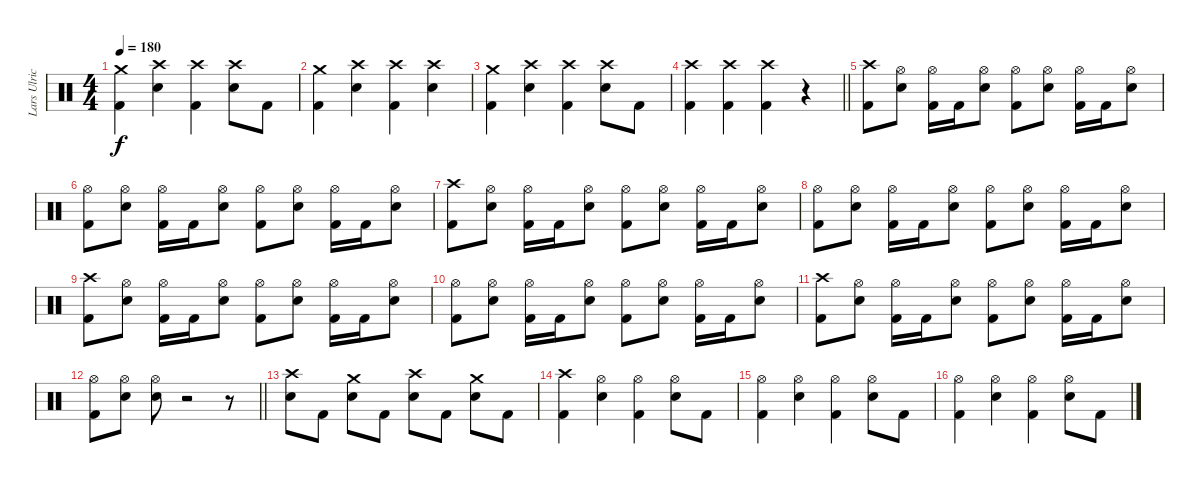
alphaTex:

\track ("Lars Ulrich" "Lars Ulric") {instrument percussion}
\staff {score}
\articulation defaults
\ts (4 4)
\tempo 180
\clef neutral
\ks c
("Crash medium (hit)" "Kick (hit) 2").4{dy f} ("Crash high (hit)" "Electric Snare (hit)").4 ("Crash high (hit)" "Kick (hit) 2").4 ("Crash high (hit)" "Electric Snare (hit)").8 "Kick (hit) 2".8 |
("Crash medium (hit)" "Kick (hit) 2").4 ("Crash high (hit)" "Electric Snare (hit)").4 ("Crash high (hit)" "Kick (hit) 2").4 ("Crash high (hit)" "Electric Snare (hit)").4 |
("Crash medium (hit)" "Kick (hit) 2").4 ("Crash high (hit)" "Electric Snare (hit)").4 ("Crash high (hit)" "Kick (hit) 2").4 ("Crash high (hit)" "Electric Snare (hit)").8 "Kick (hit) 2".8 |
\barLineRight lightlight
("Crash high (hit)" "Kick (hit) 2").4 ("Crash high (hit)" "Kick (hit) 2").4 ("Crash high (hit)" "Kick (hit) 2").4 r.4 |
\section ("" "")
("Crash high (hit)" "Kick (hit) 2").8 ("Hi-Hat (open)" "Electric Snare (hit)").8 ("Hi-Hat (open)" "Kick (hit) 2").16 "Kick (hit) 2".16 ("Hi-Hat (open)" "Electric Snare (hit)").8 ("Hi-Hat (open)" "Kick (hit) 2").8 ("Hi-Hat (open)" "Electric Snare (hit)").8 ("Hi-Hat (open)" "Kick (hit) 2").16 "Kick (hit) 2".16 ("Hi-Hat (open)" "Electric Snare (hit)").8 |
("Hi-Hat (open)" "Kick (hit) 2").8 ("Hi-Hat (open)" "Electric Snare (hit)").8 ("Hi-Hat (open)" "Kick (hit) 2").16 "Kick (hit) 2".16 ("Hi-Hat (open)" "Electric Snare (hit)").8 ("Hi-Hat (open)" "Kick (hit) 2").8 ("Hi-Hat (open)" "Electric Snare (hit)").8 ("Hi-Hat (open)" "Kick (hit) 2").16 "Kick (hit) 2".16 ("Hi-Hat (open)" "Electric Snare (hit)").8 |
("Crash high (hit)" "Kick (hit) 2").8 ("Hi-Hat (open)" "Electric Snare (hit)").8 ("Hi-Hat (open)" "Kick (hit) 2").16 "Kick (hit) 2".16 ("Hi-Hat (open)" "Electric Snare (hit)").8 ("Hi-Hat (open)" "Kick (hit) 2").8 ("Hi-Hat (open)" "Electric Snare (hit)").8 ("Hi-Hat (open)" "Kick (hit) 2").16 "Kick (hit) 2".16 ("Hi-Hat (open)" "Electric Snare (hit)").8 |
("Hi-Hat (open)" "Kick (hit) 2").8 ("Hi-Hat (open)" "Electric Snare (hit)").8 ("Hi-Hat (open)" "Kick (hit) 2").16 "Kick (hit) 2".16 ("Hi-Hat (open)" "Electric Snare (hit)").8 ("Hi-Hat (open)" "Kick (hit) 2").8 ("Hi-Hat (open)" "Electric Snare (hit)").8 ("Hi-Hat (open)" "Kick (hit) 2").16 "Kick (hit) 2".16 ("Hi-Hat (open)" "Electric Snare (hit)").8 |
("Crash high (hit)" "Kick (hit) 2").8 ("Hi-Hat (open)" "Electric Snare (hit)").8 ("Hi-Hat (open)" "Kick (hit) 2").16 "Kick (hit) 2".16 ("Hi-Hat (open)" "Electric Snare (hit)").8 ("Hi-Hat (open)" "Kick (hit) 2").8 ("Hi-Hat (open)" "Electric Snare (hit)").8 ("Hi-Hat (open)" "Kick (hit) 2").16 "Kick (hit) 2".16 ("Hi-Hat (open)" "Electric Snare (hit)").8 |
("Hi-Hat (open)" "Kick (hit) 2").8 ("Hi-Hat (open)" "Electric Snare (hit)").8 ("Hi-Hat (open)" "Kick (hit) 2").16 "Kick (hit) 2".16 ("Hi-Hat (open)" "Electric Snare (hit)").8 ("Hi-Hat (open)" "Kick (hit) 2").8 ("Hi-Hat (open)" "Electric Snare (hit)").8 ("Hi-Hat (open)" "Kick (hit) 2").16 "Kick (hit) 2".16 ("Hi-Hat (open)" "Electric Snare (hit)").8 |
("Crash high (hit)" "Kick (hit) 2").8 ("Hi-Hat (open)" "Electric Snare (hit)").8 ("Hi-Hat (open)" "Kick (hit) 2").16 "Kick (hit) 2".16 ("Hi-Hat (open)" "Electric Snare (hit)").8 ("Hi-Hat (open)" "Kick (hit) 2").8 ("Hi-Hat (open)" "Electric Snare (hit)").8 ("Hi-Hat (open)" "Kick (hit) 2").16 "Kick (hit) 2".16 ("Hi-Hat (open)" "Electric Snare (hit)").8 |
\barLineRight lightlight
("Hi-Hat (open)" "Kick (hit) 2").8 ("Hi-Hat (open)" "Electric Snare (hit)").8 ("Hi-Hat (open)" "Electric Snare (hit)").8 r.2 r.8 |
\section ("" "")
("Crash high (hit)" "Electric Snare (hit)").8 "Kick (hit) 2".8 ("Crash medium (hit)" "Electric Snare (hit)").8 "Kick (hit) 2".8 ("Crash high (hit)" "Electric Snare (hit)").8 "Kick (hit) 2".8 ("Crash medium (hit)" "Electric Snare (hit)").8 "Kick (hit) 2".8 |
("Crash high (hit)" "Kick (hit) 2").4 ("Hi-Hat (open)" "Electric Snare (hit)").4 ("Hi-Hat (open)" "Kick (hit) 2").4 ("Hi-Hat (open)" "Electric Snare (hit)").8 "Kick (hit) 2".8 |
("Hi-Hat (open)" "Kick (hit) 2").4 ("Hi-Hat (open)" "Electric Snare (hit)").4 ("Hi-Hat (open)" "Kick (hit) 2").4 ("Hi-Hat (open)" "Electric Snare (hit)").8 "Kick (hit) 2".8 |
("Hi-Hat (open)" "Kick (hit) 2").4 ("Hi-Hat (open)" "Electric Snare (hit)").4 ("Hi-Hat (open)" "Kick (hit) 2").4 ("Hi-Hat (open)" "Electric Snare (hit)").8 "Kick (hit) 2".8
